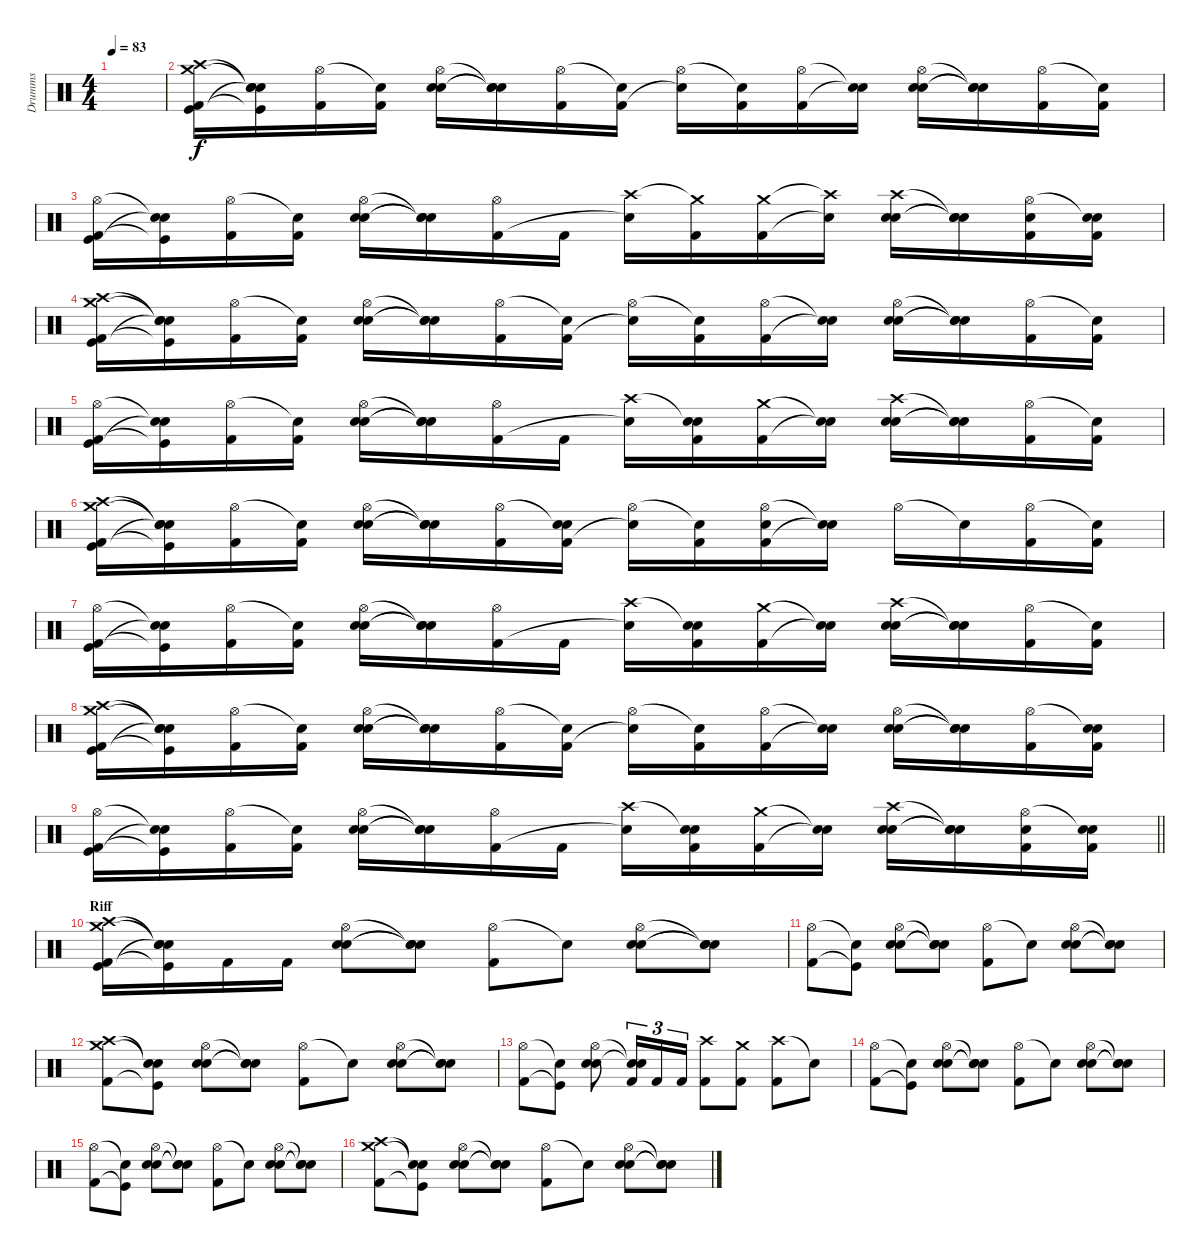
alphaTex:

\track ("Drumms" "Drumms") {instrument percussion}
\staff {score}
\articulation defaults
\ts (4 4)
\tempo 83
\clef neutral
\ks c
|
("Crash high (hit)" "Crash medium (hit)" "Kick (hit) 2" "Kick (hit)").16 ("Snare (hit)"{t} "Snare (hit)"{t} "Kick (hit)"{t} "Snare (hit)"{t}).16 ("Hi-Hat (open)" "Kick (hit) 2").16 ("Snare (hit)"{t} "Kick (hit) 2").16 ("Hi-Hat (open)" "Electric Snare (hit)" "Electric Snare (hit)").16 ("Snare (hit)"{t} "Snare (hit)"{t} "Snare (hit)"{t}).16 ("Hi-Hat (open)" "Kick (hit) 2").16 ("Snare (hit)"{t} "Kick (hit) 2").16 ("Hi-Hat (open)" "Snare (hit)"{t}).16 ("Snare (hit)"{t} "Kick (hit) 2").16 ("Hi-Hat (open)" "Kick (hit) 2").16 ("Snare (hit)"{t} "Snare (hit)"{t}).16 ("Hi-Hat (open)" "Electric Snare (hit)" "Electric Snare (hit)").16 ("Snare (hit)"{t} "Snare (hit)"{t} "Snare (hit)"{t}).16 ("Hi-Hat (open)" "Kick (hit) 2").16 ("Snare (hit)"{t} "Kick (hit) 2").16 |
("Hi-Hat (open)" "Kick (hit) 2" "Kick (hit)").16 ("Snare (hit)"{t} "Kick (hit)"{t} "Snare (hit)"{t}).16 ("Hi-Hat (open)" "Kick (hit) 2").16 ("Snare (hit)"{t} "Kick (hit) 2").16 ("Hi-Hat (open)" "Electric Snare (hit)" "Electric Snare (hit)").16 ("Snare (hit)"{t} "Snare (hit)"{t} "Snare (hit)"{t}).16 ("Hi-Hat (open)" "Kick (hit) 2").16 "Kick (hit) 2".16 ("Crash high (hit)" "Snare (hit)"{t}).16 ("Crash medium (hit)"{t} "Kick (hit) 2").16 ("Crash medium (hit)" "Kick (hit) 2").16 ("Crash high (hit)"{t} "Snare (hit)"{t}).16 ("Crash high (hit)" "Electric Snare (hit)" "Electric Snare (hit)").16 ("Snare (hit)"{t} "Snare (hit)"{t} "Snare (hit)"{t}).16 ("Hi-Hat (open)" "Kick (hit) 2" "Electric Snare (hit)").16 ("Snare (hit)"{t} "Kick (hit) 2" "Electric Snare (hit)").16 |
("Crash high (hit)" "Crash medium (hit)" "Kick (hit) 2" "Kick (hit)").16 ("Snare (hit)"{t} "Snare (hit)"{t} "Kick (hit)"{t} "Snare (hit)"{t}).16 ("Hi-Hat (open)" "Kick (hit) 2").16 ("Snare (hit)"{t} "Kick (hit) 2").16 ("Hi-Hat (open)" "Electric Snare (hit)" "Electric Snare (hit)").16 ("Snare (hit)"{t} "Snare (hit)"{t} "Snare (hit)"{t}).16 ("Hi-Hat (open)" "Kick (hit) 2").16 ("Snare (hit)"{t} "Kick (hit) 2").16 ("Hi-Hat (open)" "Snare (hit)"{t}).16 ("Snare (hit)"{t} "Kick (hit) 2").16 ("Hi-Hat (open)" "Kick (hit) 2").16 ("Snare (hit)"{t} "Snare (hit)"{t}).16 ("Hi-Hat (open)" "Electric Snare (hit)" "Electric Snare (hit)").16 ("Snare (hit)"{t} "Snare (hit)"{t} "Snare (hit)"{t}).16 ("Hi-Hat (open)" "Kick (hit) 2").16 ("Snare (hit)"{t} "Kick (hit) 2").16 |
("Hi-Hat (open)" "Kick (hit) 2" "Kick (hit)").16 ("Snare (hit)"{t} "Kick (hit)"{t} "Snare (hit)"{t}).16 ("Hi-Hat (open)" "Kick (hit) 2").16 ("Snare (hit)"{t} "Kick (hit) 2").16 ("Hi-Hat (open)" "Electric Snare (hit)" "Electric Snare (hit)").16 ("Snare (hit)"{t} "Snare (hit)"{t} "Snare (hit)"{t}).16 ("Hi-Hat (open)" "Kick (hit) 2").16 "Kick (hit) 2".16 ("Crash high (hit)" "Snare (hit)"{t}).16 ("Snare (hit)"{t} "Kick (hit) 2" "Electric Snare (hit)").16 ("Crash medium (hit)" "Kick (hit) 2").16 ("Snare (hit)"{t} "Snare (hit)"{t}).16 ("Crash high (hit)" "Electric Snare (hit)" "Electric Snare (hit)").16 ("Snare (hit)"{t} "Snare (hit)"{t} "Snare (hit)"{t}).16 ("Hi-Hat (open)" "Kick (hit) 2").16 ("Snare (hit)"{t} "Kick (hit) 2").16 |
("Crash high (hit)" "Crash medium (hit)" "Kick (hit) 2" "Kick (hit)").16 ("Snare (hit)"{t} "Snare (hit)"{t} "Kick (hit)"{t} "Snare (hit)"{t}).16 ("Hi-Hat (open)" "Kick (hit) 2").16 ("Snare (hit)"{t} "Kick (hit) 2").16 ("Hi-Hat (open)" "Electric Snare (hit)" "Electric Snare (hit)").16 ("Snare (hit)"{t} "Snare (hit)"{t} "Snare (hit)"{t}).16 ("Hi-Hat (open)" "Kick (hit) 2").16 ("Snare (hit)"{t} "Kick (hit) 2" "Electric Snare (hit)").16 ("Hi-Hat (open)" "Snare (hit)"{t}).16 ("Snare (hit)"{t} "Kick (hit) 2").16 ("Hi-Hat (open)" "Kick (hit) 2" "Electric Snare (hit)").16 ("Snare (hit)"{t} "Snare (hit)"{t}).16 "Hi-Hat (open)".16 "Snare (hit)"{t}.16 ("Hi-Hat (open)" "Kick (hit) 2").16 ("Snare (hit)"{t} "Kick (hit) 2").16 |
("Hi-Hat (open)" "Kick (hit) 2" "Kick (hit)").16 ("Snare (hit)"{t} "Kick (hit)"{t} "Snare (hit)"{t}).16 ("Hi-Hat (open)" "Kick (hit) 2").16 ("Snare (hit)"{t} "Kick (hit) 2").16 ("Hi-Hat (open)" "Electric Snare (hit)" "Electric Snare (hit)").16 ("Snare (hit)"{t} "Snare (hit)"{t} "Snare (hit)"{t}).16 ("Hi-Hat (open)" "Kick (hit) 2").16 "Kick (hit) 2".16 ("Crash high (hit)" "Snare (hit)"{t}).16 ("Snare (hit)"{t} "Kick (hit) 2" "Electric Snare (hit)").16 ("Crash medium (hit)" "Kick (hit) 2").16 ("Snare (hit)"{t} "Snare (hit)"{t}).16 ("Crash high (hit)" "Electric Snare (hit)" "Electric Snare (hit)").16 ("Snare (hit)"{t} "Snare (hit)"{t} "Snare (hit)"{t}).16 ("Hi-Hat (open)" "Kick (hit) 2").16 ("Snare (hit)"{t} "Kick (hit) 2").16 |
("Crash high (hit)" "Crash medium (hit)" "Kick (hit) 2" "Kick (hit)").16 ("Snare (hit)"{t} "Snare (hit)"{t} "Kick (hit)"{t} "Snare (hit)"{t}).16 ("Hi-Hat (open)" "Kick (hit) 2").16 ("Snare (hit)"{t} "Kick (hit) 2").16 ("Hi-Hat (open)" "Electric Snare (hit)" "Electric Snare (hit)").16 ("Snare (hit)"{t} "Snare (hit)"{t} "Snare (hit)"{t}).16 ("Hi-Hat (open)" "Kick (hit) 2").16 ("Snare (hit)"{t} "Kick (hit) 2").16 ("Hi-Hat (open)" "Snare (hit)"{t}).16 ("Snare (hit)"{t} "Kick (hit) 2").16 ("Hi-Hat (open)" "Kick (hit) 2").16 ("Snare (hit)"{t} "Snare (hit)"{t}).16 ("Hi-Hat (open)" "Electric Snare (hit)" "Electric Snare (hit)").16 ("Snare (hit)"{t} "Snare (hit)"{t} "Snare (hit)"{t}).16 ("Hi-Hat (open)" "Kick (hit) 2").16 ("Snare (hit)"{t} "Kick (hit) 2" "Electric Snare (hit)").16 |
\barLineRight lightlight
("Hi-Hat (open)" "Kick (hit) 2" "Kick (hit)").16 ("Snare (hit)"{t} "Kick (hit)"{t} "Snare (hit)"{t}).16 ("Hi-Hat (open)" "Kick (hit) 2").16 ("Snare (hit)"{t} "Kick (hit) 2").16 ("Hi-Hat (open)" "Electric Snare (hit)" "Electric Snare (hit)").16 ("Snare (hit)"{t} "Snare (hit)"{t} "Snare (hit)"{t}).16 ("Hi-Hat (open)" "Kick (hit) 2").16 "Kick (hit) 2".16 ("Crash high (hit)" "Snare (hit)"{t}).16 ("Snare (hit)"{t} "Kick (hit) 2" "Electric Snare (hit)").16 ("Crash medium (hit)" "Kick (hit) 2").16 ("Snare (hit)"{t} "Snare (hit)"{t}).16 ("Crash high (hit)" "Electric Snare (hit)" "Electric Snare (hit)").16 ("Snare (hit)"{t} "Snare (hit)"{t} "Snare (hit)"{t}).16 ("Hi-Hat (open)" "Kick (hit) 2" "Electric Snare (hit)").16 ("Snare (hit)"{t} "Kick (hit) 2" "Electric Snare (hit)").16 |
\section ("" "Riff")
("Crash high (hit)" "Crash medium (hit)" "Kick (hit) 2" "Kick (hit)").16 ("Snare (hit)"{t} "Snare (hit)"{t} "Kick (hit)"{t} "Snare (hit)"{t}).16 "Kick (hit) 2".16 "Kick (hit) 2".16 ("Hi-Hat (open)" "Electric Snare (hit)" "Electric Snare (hit)").8 ("Snare (hit)"{t} "Snare (hit)"{t} "Snare (hit)"{t}).8 ("Hi-Hat (open)" "Kick (hit) 2").8 "Snare (hit)"{t}.8 ("Hi-Hat (open)" "Electric Snare (hit)" "Electric Snare (hit)").8 ("Snare (hit)"{t} "Snare (hit)"{t} "Snare (hit)"{t}).8 |
("Hi-Hat (open)" "Kick (hit) 2").8 ("Snare (hit)"{t} "Kick (hit)"{t}).8 ("Hi-Hat (open)" "Electric Snare (hit)" "Electric Snare (hit)").8 ("Snare (hit)"{t} "Snare (hit)"{t} "Snare (hit)"{t}).8 ("Hi-Hat (open)" "Kick (hit) 2").8 "Snare (hit)"{t}.8 ("Hi-Hat (open)" "Electric Snare (hit)" "Electric Snare (hit)").8 ("Snare (hit)"{t} "Snare (hit)"{t} "Snare (hit)"{t}).8 |
("Crash high (hit)" "Crash medium (hit)" "Kick (hit) 2").8 ("Snare (hit)"{t} "Snare (hit)"{t} "Kick (hit)"{t}).8 ("Hi-Hat (open)" "Electric Snare (hit)" "Electric Snare (hit)").8 ("Snare (hit)"{t} "Snare (hit)"{t} "Snare (hit)"{t}).8 ("Hi-Hat (open)" "Kick (hit) 2").8 "Snare (hit)"{t}.8 ("Hi-Hat (open)" "Electric Snare (hit)" "Electric Snare (hit)").8 ("Snare (hit)"{t} "Snare (hit)"{t} "Snare (hit)"{t}).8 |
("Hi-Hat (open)" "Kick (hit) 2").8 ("Snare (hit)"{t} "Kick (hit)"{t}).8 ("Hi-Hat (open)" "Electric Snare (hit)" "Electric Snare (hit)").8 ("Snare (hit)"{t} "Kick (hit) 2" "Snare (hit)"{t}).16{tu (3 2)} "Kick (hit) 2".16{tu (3 2)} "Kick (hit) 2".16{tu (3 2)} ("Crash high (hit)" "Kick (hit) 2").8 ("Crash medium (hit)" "Kick (hit) 2").8 ("Crash high (hit)" "Kick (hit) 2").8 "Snare (hit)"{t}.8 |
("Hi-Hat (open)" "Kick (hit) 2").8 ("Snare (hit)"{t} "Kick (hit)"{t}).8 ("Hi-Hat (open)" "Electric Snare (hit)" "Electric Snare (hit)").8 ("Snare (hit)"{t} "Snare (hit)"{t} "Snare (hit)"{t}).8 ("Hi-Hat (open)" "Kick (hit) 2").8 "Snare (hit)"{t}.8 ("Hi-Hat (open)" "Electric Snare (hit)" "Electric Snare (hit)").8 ("Snare (hit)"{t} "Snare (hit)"{t} "Snare (hit)"{t}).8 |
("Hi-Hat (open)" "Kick (hit) 2").8 ("Snare (hit)"{t} "Kick (hit)"{t}).8 ("Hi-Hat (open)" "Electric Snare (hit)" "Electric Snare (hit)").8 ("Snare (hit)"{t} "Snare (hit)"{t} "Snare (hit)"{t}).8 ("Hi-Hat (open)" "Kick (hit) 2").8 "Snare (hit)"{t}.8 ("Hi-Hat (open)" "Electric Snare (hit)" "Electric Snare (hit)").8 ("Snare (hit)"{t} "Snare (hit)"{t} "Snare (hit)"{t}).8 |
("Crash high (hit)" "Crash medium (hit)" "Kick (hit) 2").8 ("Snare (hit)"{t} "Snare (hit)"{t} "Kick (hit)"{t}).8 ("Hi-Hat (open)" "Electric Snare (hit)" "Electric Snare (hit)").8 ("Snare (hit)"{t} "Snare (hit)"{t} "Snare (hit)"{t}).8 ("Hi-Hat (open)" "Kick (hit) 2").8 "Snare (hit)"{t}.8 ("Hi-Hat (open)" "Electric Snare (hit)" "Electric Snare (hit)").8 ("Snare (hit)"{t} "Snare (hit)"{t} "Snare (hit)"{t}).8
